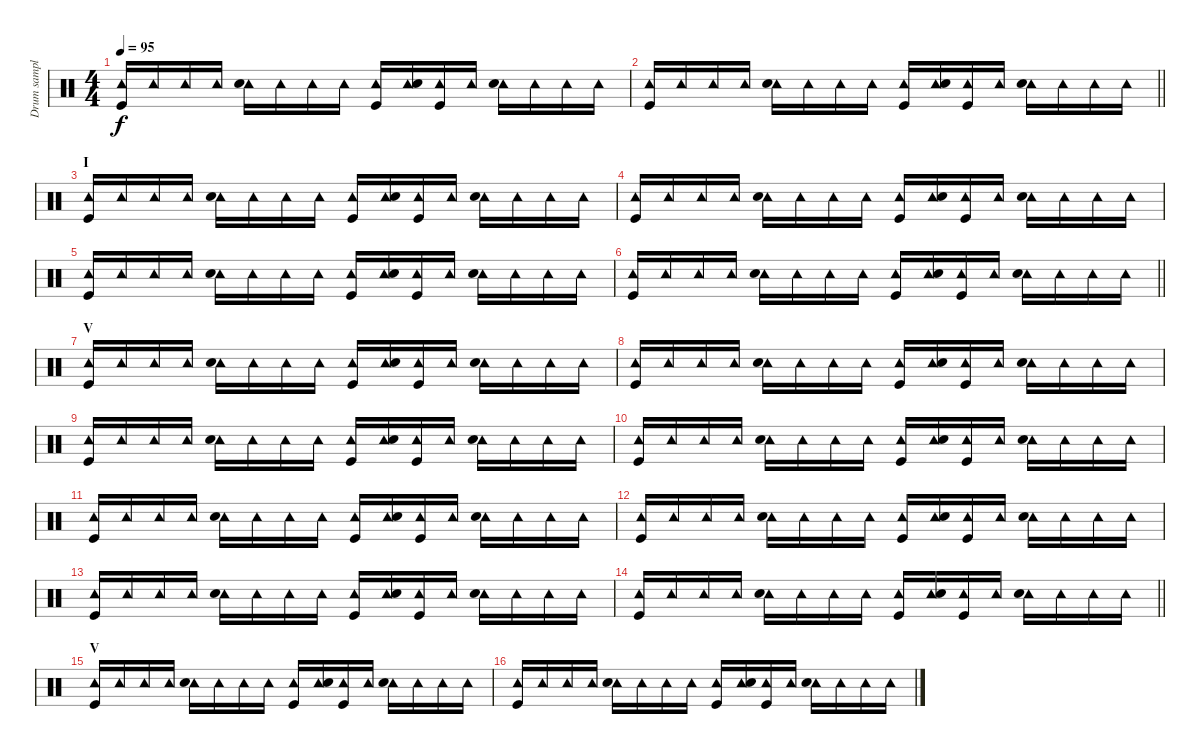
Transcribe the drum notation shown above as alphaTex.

\track ("Drum sample" "Drum sampl") {instrument percussion}
\staff {score}
\articulation defaults
\ts (4 4)
\tempo 95
\clef neutral
\ks c
("Tambourine (hit)" "Kick (hit)").16{dy f} "Tambourine (hit)".16 "Tambourine (hit)".16 "Tambourine (hit)".16 ("Tambourine (hit)" "Electric Snare (hit)").16 "Tambourine (hit)".16 "Tambourine (hit)".16 "Tambourine (hit)".16 ("Tambourine (hit)" "Kick (hit)").16 ("Tambourine (hit)" "Electric Snare (hit)").16 ("Tambourine (hit)" "Kick (hit)").16 "Tambourine (hit)".16 ("Tambourine (hit)" "Electric Snare (hit)").16 "Tambourine (hit)".16 "Tambourine (hit)".16 "Tambourine (hit)".16 |
\barLineRight lightlight
("Tambourine (hit)" "Kick (hit)").16 "Tambourine (hit)".16 "Tambourine (hit)".16 "Tambourine (hit)".16 ("Tambourine (hit)" "Electric Snare (hit)").16 "Tambourine (hit)".16 "Tambourine (hit)".16 "Tambourine (hit)".16 ("Tambourine (hit)" "Kick (hit)").16 ("Tambourine (hit)" "Electric Snare (hit)").16 ("Tambourine (hit)" "Kick (hit)").16 "Tambourine (hit)".16 ("Tambourine (hit)" "Electric Snare (hit)").16 "Tambourine (hit)".16 "Tambourine (hit)".16 "Tambourine (hit)".16 |
\section ("" "I")
("Tambourine (hit)" "Kick (hit)").16 "Tambourine (hit)".16 "Tambourine (hit)".16 "Tambourine (hit)".16 ("Tambourine (hit)" "Electric Snare (hit)").16 "Tambourine (hit)".16 "Tambourine (hit)".16 "Tambourine (hit)".16 ("Tambourine (hit)" "Kick (hit)").16 ("Tambourine (hit)" "Electric Snare (hit)").16 ("Tambourine (hit)" "Kick (hit)").16 "Tambourine (hit)".16 ("Tambourine (hit)" "Electric Snare (hit)").16 "Tambourine (hit)".16 "Tambourine (hit)".16 "Tambourine (hit)".16 |
("Tambourine (hit)" "Kick (hit)").16 "Tambourine (hit)".16 "Tambourine (hit)".16 "Tambourine (hit)".16 ("Tambourine (hit)" "Electric Snare (hit)").16 "Tambourine (hit)".16 "Tambourine (hit)".16 "Tambourine (hit)".16 ("Tambourine (hit)" "Kick (hit)").16 ("Tambourine (hit)" "Electric Snare (hit)").16 ("Tambourine (hit)" "Kick (hit)").16 "Tambourine (hit)".16 ("Tambourine (hit)" "Electric Snare (hit)").16 "Tambourine (hit)".16 "Tambourine (hit)".16 "Tambourine (hit)".16 |
("Tambourine (hit)" "Kick (hit)").16 "Tambourine (hit)".16 "Tambourine (hit)".16 "Tambourine (hit)".16 ("Tambourine (hit)" "Electric Snare (hit)").16 "Tambourine (hit)".16 "Tambourine (hit)".16 "Tambourine (hit)".16 ("Tambourine (hit)" "Kick (hit)").16 ("Tambourine (hit)" "Electric Snare (hit)").16 ("Tambourine (hit)" "Kick (hit)").16 "Tambourine (hit)".16 ("Tambourine (hit)" "Electric Snare (hit)").16 "Tambourine (hit)".16 "Tambourine (hit)".16 "Tambourine (hit)".16 |
\barLineRight lightlight
("Tambourine (hit)" "Kick (hit)").16 "Tambourine (hit)".16 "Tambourine (hit)".16 "Tambourine (hit)".16 ("Tambourine (hit)" "Electric Snare (hit)").16 "Tambourine (hit)".16 "Tambourine (hit)".16 "Tambourine (hit)".16 ("Tambourine (hit)" "Kick (hit)").16 ("Tambourine (hit)" "Electric Snare (hit)").16 ("Tambourine (hit)" "Kick (hit)").16 "Tambourine (hit)".16 ("Tambourine (hit)" "Electric Snare (hit)").16 "Tambourine (hit)".16 "Tambourine (hit)".16 "Tambourine (hit)".16 |
\section ("" "V")
("Tambourine (hit)" "Kick (hit)").16 "Tambourine (hit)".16 "Tambourine (hit)".16 "Tambourine (hit)".16 ("Tambourine (hit)" "Electric Snare (hit)").16 "Tambourine (hit)".16 "Tambourine (hit)".16 "Tambourine (hit)".16 ("Tambourine (hit)" "Kick (hit)").16 ("Tambourine (hit)" "Electric Snare (hit)").16 ("Tambourine (hit)" "Kick (hit)").16 "Tambourine (hit)".16 ("Tambourine (hit)" "Electric Snare (hit)").16 "Tambourine (hit)".16 "Tambourine (hit)".16 "Tambourine (hit)".16 |
("Tambourine (hit)" "Kick (hit)").16 "Tambourine (hit)".16 "Tambourine (hit)".16 "Tambourine (hit)".16 ("Tambourine (hit)" "Electric Snare (hit)").16 "Tambourine (hit)".16 "Tambourine (hit)".16 "Tambourine (hit)".16 ("Tambourine (hit)" "Kick (hit)").16 ("Tambourine (hit)" "Electric Snare (hit)").16 ("Tambourine (hit)" "Kick (hit)").16 "Tambourine (hit)".16 ("Tambourine (hit)" "Electric Snare (hit)").16 "Tambourine (hit)".16 "Tambourine (hit)".16 "Tambourine (hit)".16 |
("Tambourine (hit)" "Kick (hit)").16 "Tambourine (hit)".16 "Tambourine (hit)".16 "Tambourine (hit)".16 ("Tambourine (hit)" "Electric Snare (hit)").16 "Tambourine (hit)".16 "Tambourine (hit)".16 "Tambourine (hit)".16 ("Tambourine (hit)" "Kick (hit)").16 ("Tambourine (hit)" "Electric Snare (hit)").16 ("Tambourine (hit)" "Kick (hit)").16 "Tambourine (hit)".16 ("Tambourine (hit)" "Electric Snare (hit)").16 "Tambourine (hit)".16 "Tambourine (hit)".16 "Tambourine (hit)".16 |
("Tambourine (hit)" "Kick (hit)").16 "Tambourine (hit)".16 "Tambourine (hit)".16 "Tambourine (hit)".16 ("Tambourine (hit)" "Electric Snare (hit)").16 "Tambourine (hit)".16 "Tambourine (hit)".16 "Tambourine (hit)".16 ("Tambourine (hit)" "Kick (hit)").16 ("Tambourine (hit)" "Electric Snare (hit)").16 ("Tambourine (hit)" "Kick (hit)").16 "Tambourine (hit)".16 ("Tambourine (hit)" "Electric Snare (hit)").16 "Tambourine (hit)".16 "Tambourine (hit)".16 "Tambourine (hit)".16 |
("Tambourine (hit)" "Kick (hit)").16 "Tambourine (hit)".16 "Tambourine (hit)".16 "Tambourine (hit)".16 ("Tambourine (hit)" "Electric Snare (hit)").16 "Tambourine (hit)".16 "Tambourine (hit)".16 "Tambourine (hit)".16 ("Tambourine (hit)" "Kick (hit)").16 ("Tambourine (hit)" "Electric Snare (hit)").16 ("Tambourine (hit)" "Kick (hit)").16 "Tambourine (hit)".16 ("Tambourine (hit)" "Electric Snare (hit)").16 "Tambourine (hit)".16 "Tambourine (hit)".16 "Tambourine (hit)".16 |
("Tambourine (hit)" "Kick (hit)").16 "Tambourine (hit)".16 "Tambourine (hit)".16 "Tambourine (hit)".16 ("Tambourine (hit)" "Electric Snare (hit)").16 "Tambourine (hit)".16 "Tambourine (hit)".16 "Tambourine (hit)".16 ("Tambourine (hit)" "Kick (hit)").16 ("Tambourine (hit)" "Electric Snare (hit)").16 ("Tambourine (hit)" "Kick (hit)").16 "Tambourine (hit)".16 ("Tambourine (hit)" "Electric Snare (hit)").16 "Tambourine (hit)".16 "Tambourine (hit)".16 "Tambourine (hit)".16 |
("Tambourine (hit)" "Kick (hit)").16 "Tambourine (hit)".16 "Tambourine (hit)".16 "Tambourine (hit)".16 ("Tambourine (hit)" "Electric Snare (hit)").16 "Tambourine (hit)".16 "Tambourine (hit)".16 "Tambourine (hit)".16 ("Tambourine (hit)" "Kick (hit)").16 ("Tambourine (hit)" "Electric Snare (hit)").16 ("Tambourine (hit)" "Kick (hit)").16 "Tambourine (hit)".16 ("Tambourine (hit)" "Electric Snare (hit)").16 "Tambourine (hit)".16 "Tambourine (hit)".16 "Tambourine (hit)".16 |
\barLineRight lightlight
("Tambourine (hit)" "Kick (hit)").16 "Tambourine (hit)".16 "Tambourine (hit)".16 "Tambourine (hit)".16 ("Tambourine (hit)" "Electric Snare (hit)").16 "Tambourine (hit)".16 "Tambourine (hit)".16 "Tambourine (hit)".16 ("Tambourine (hit)" "Kick (hit)").16 ("Tambourine (hit)" "Electric Snare (hit)").16 ("Tambourine (hit)" "Kick (hit)").16 "Tambourine (hit)".16 ("Tambourine (hit)" "Electric Snare (hit)").16 "Tambourine (hit)".16 "Tambourine (hit)".16 "Tambourine (hit)".16 |
\section ("" "V")
("Tambourine (hit)" "Kick (hit)").16 "Tambourine (hit)".16 "Tambourine (hit)".16 "Tambourine (hit)".16 ("Tambourine (hit)" "Electric Snare (hit)").16 "Tambourine (hit)".16 "Tambourine (hit)".16 "Tambourine (hit)".16 ("Tambourine (hit)" "Kick (hit)").16 ("Tambourine (hit)" "Electric Snare (hit)").16 ("Tambourine (hit)" "Kick (hit)").16 "Tambourine (hit)".16 ("Tambourine (hit)" "Electric Snare (hit)").16 "Tambourine (hit)".16 "Tambourine (hit)".16 "Tambourine (hit)".16 |
("Tambourine (hit)" "Kick (hit)").16 "Tambourine (hit)".16 "Tambourine (hit)".16 "Tambourine (hit)".16 ("Tambourine (hit)" "Electric Snare (hit)").16 "Tambourine (hit)".16 "Tambourine (hit)".16 "Tambourine (hit)".16 ("Tambourine (hit)" "Kick (hit)").16 ("Tambourine (hit)" "Electric Snare (hit)").16 ("Tambourine (hit)" "Kick (hit)").16 "Tambourine (hit)".16 ("Tambourine (hit)" "Electric Snare (hit)").16 "Tambourine (hit)".16 "Tambourine (hit)".16 "Tambourine (hit)".16
